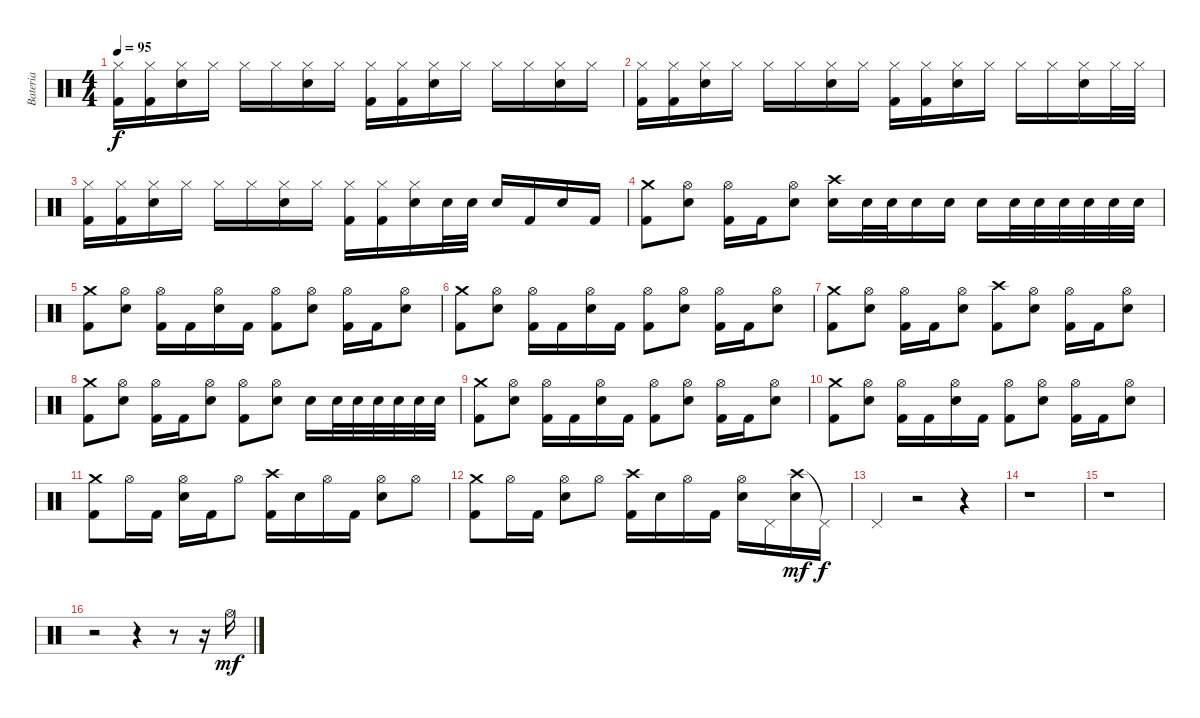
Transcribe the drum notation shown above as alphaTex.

\track ("Bateria" "Bateria") {instrument percussion}
\staff {score}
\articulation defaults
\ts (4 4)
\tempo 95
\clef neutral
\ks c
("Hi-Hat (closed)" "Kick (hit) 2").16{dy f} ("Hi-Hat (closed)" "Kick (hit) 2").16 ("Hi-Hat (closed)" "Electric Snare (hit)").16 "Hi-Hat (closed)".16 "Hi-Hat (closed)".16 "Hi-Hat (closed)".16 ("Hi-Hat (closed)" "Electric Snare (hit)").16 "Hi-Hat (closed)".16 ("Hi-Hat (closed)" "Kick (hit) 2").16 ("Hi-Hat (closed)" "Kick (hit) 2").16 ("Hi-Hat (closed)" "Electric Snare (hit)").16 "Hi-Hat (closed)".16 "Hi-Hat (closed)".16 "Hi-Hat (closed)".16 ("Hi-Hat (closed)" "Electric Snare (hit)").16 "Hi-Hat (closed)".16 |
("Hi-Hat (closed)" "Kick (hit) 2").16 ("Hi-Hat (closed)" "Kick (hit) 2").16 ("Hi-Hat (closed)" "Electric Snare (hit)").16 "Hi-Hat (closed)".16 "Hi-Hat (closed)".16 "Hi-Hat (closed)".16 ("Hi-Hat (closed)" "Electric Snare (hit)").16 "Hi-Hat (closed)".16 ("Hi-Hat (closed)" "Kick (hit) 2").16 ("Hi-Hat (closed)" "Kick (hit) 2").16 ("Hi-Hat (closed)" "Electric Snare (hit)").16 "Hi-Hat (closed)".16 "Hi-Hat (closed)".16 "Hi-Hat (closed)".16 ("Hi-Hat (closed)" "Electric Snare (hit)").16 "Hi-Hat (closed)".32 "Hi-Hat (closed)".32 |
("Hi-Hat (closed)" "Kick (hit) 2").16 ("Hi-Hat (closed)" "Kick (hit) 2").16 ("Hi-Hat (closed)" "Electric Snare (hit)").16 "Hi-Hat (closed)".16 "Hi-Hat (closed)".16 "Hi-Hat (closed)".16 ("Hi-Hat (closed)" "Electric Snare (hit)").16 "Hi-Hat (closed)".16 ("Hi-Hat (closed)" "Kick (hit) 2").16 ("Hi-Hat (closed)" "Kick (hit) 2").16 ("Hi-Hat (closed)" "Electric Snare (hit)").16 "Electric Snare (hit)".32 "Electric Snare (hit)".32 "Electric Snare (hit)".16 "Kick (hit) 2".16 "Electric Snare (hit)".16 "Kick (hit) 2".16 |
("Crash medium (hit)" "Kick (hit) 2").8 ("Hi-Hat (open)" "Electric Snare (hit)").8 ("Hi-Hat (open)" "Kick (hit) 2").16 "Kick (hit) 2".16 ("Hi-Hat (open)" "Electric Snare (hit)").8 ("Crash high (hit)" "Electric Snare (hit)").16 "Electric Snare (hit)".32 "Electric Snare (hit)".32 "Electric Snare (hit)".16 "Electric Snare (hit)".16 "Electric Snare (hit)".16 "Electric Snare (hit)".32 "Electric Snare (hit)".32 "Electric Snare (hit)".32 "Electric Snare (hit)".32 "Electric Snare (hit)".32 "Electric Snare (hit)".32 |
("Crash medium (hit)" "Kick (hit) 2").8 ("Hi-Hat (open)" "Electric Snare (hit)").8 ("Hi-Hat (open)" "Kick (hit) 2").16 "Kick (hit) 2".16 ("Hi-Hat (open)" "Electric Snare (hit)").16 "Kick (hit) 2".16 ("Hi-Hat (open)" "Kick (hit) 2").8 ("Hi-Hat (open)" "Electric Snare (hit)").8 ("Hi-Hat (open)" "Kick (hit) 2").16 "Kick (hit) 2".16 ("Hi-Hat (open)" "Electric Snare (hit)").8 |
("Crash medium (hit)" "Kick (hit) 2").8 ("Hi-Hat (open)" "Electric Snare (hit)").8 ("Hi-Hat (open)" "Kick (hit) 2").16 "Kick (hit) 2".16 ("Hi-Hat (open)" "Electric Snare (hit)").16 "Kick (hit) 2".16 ("Hi-Hat (open)" "Kick (hit) 2").8 ("Hi-Hat (open)" "Electric Snare (hit)").8 ("Hi-Hat (open)" "Kick (hit) 2").16 "Kick (hit) 2".16 ("Hi-Hat (open)" "Electric Snare (hit)").8 |
("Crash medium (hit)" "Kick (hit) 2").8 ("Hi-Hat (open)" "Electric Snare (hit)").8 ("Hi-Hat (open)" "Kick (hit) 2").16 "Kick (hit) 2".16 ("Hi-Hat (open)" "Electric Snare (hit)").8 ("Crash high (hit)" "Kick (hit) 2").8 ("Hi-Hat (open)" "Electric Snare (hit)").8 ("Hi-Hat (open)" "Kick (hit) 2").16 "Kick (hit) 2".16 ("Hi-Hat (open)" "Electric Snare (hit)").8 |
("Crash medium (hit)" "Kick (hit) 2").8 ("Hi-Hat (open)" "Electric Snare (hit)").8 ("Hi-Hat (open)" "Kick (hit) 2").16 "Kick (hit) 2".16 ("Hi-Hat (open)" "Electric Snare (hit)").8 ("Hi-Hat (open)" "Kick (hit) 2").8 ("Hi-Hat (open)" "Electric Snare (hit)").8 "Electric Snare (hit)".16 "Electric Snare (hit)".32 "Electric Snare (hit)".32 "Electric Snare (hit)".32 "Electric Snare (hit)".32 "Electric Snare (hit)".32 "Electric Snare (hit)".32 |
("Crash medium (hit)" "Kick (hit) 2").8 ("Hi-Hat (open)" "Electric Snare (hit)").8 ("Hi-Hat (open)" "Kick (hit) 2").16 "Kick (hit) 2".16 ("Hi-Hat (open)" "Electric Snare (hit)").16 "Kick (hit) 2".16 ("Hi-Hat (open)" "Kick (hit) 2").8 ("Hi-Hat (open)" "Electric Snare (hit)").8 ("Hi-Hat (open)" "Kick (hit) 2").16 "Kick (hit) 2".16 ("Hi-Hat (open)" "Electric Snare (hit)").8 |
("Crash medium (hit)" "Kick (hit) 2").8 ("Hi-Hat (open)" "Electric Snare (hit)").8 ("Hi-Hat (open)" "Kick (hit) 2").16 "Kick (hit) 2".16 ("Hi-Hat (open)" "Electric Snare (hit)").16 "Kick (hit) 2".16 ("Hi-Hat (open)" "Kick (hit) 2").8 ("Hi-Hat (open)" "Electric Snare (hit)").8 ("Hi-Hat (open)" "Kick (hit) 2").16 "Kick (hit) 2".16 ("Hi-Hat (open)" "Electric Snare (hit)").8 |
("Crash medium (hit)" "Kick (hit) 2").8 "Hi-Hat (open)".16 "Kick (hit) 2".16 ("Hi-Hat (open)" "Electric Snare (hit)").16 "Kick (hit) 2".16 "Hi-Hat (open)".8 ("Crash high (hit)" "Kick (hit) 2").16 "Electric Snare (hit)".16 "Hi-Hat (open)".16 "Kick (hit) 2".16 ("Hi-Hat (open)" "Electric Snare (hit)").8 "Hi-Hat (open)".8 |
("Crash medium (hit)" "Kick (hit) 2").8 "Hi-Hat (open)".16 "Kick (hit) 2".16 ("Hi-Hat (open)" "Electric Snare (hit)").8 "Hi-Hat (open)".8 ("Crash high (hit)" "Kick (hit) 2").16 "Electric Snare (hit)".16 "Hi-Hat (open)".16 "Kick (hit) 2".16 ("Hi-Hat (open)" "Electric Snare (hit)").16 "Pedal Hi-Hat (hit)".16 ("Crash high (hit)" "Electric Snare (hit)").16{dy mf} "Pedal Hi-Hat (hit)"{t}.16{dy f} |
"Pedal Hi-Hat (hit)".4 r.2 r.4 |
r.1 |
r.1 |
r.2 r.4 r.8 r.16 "Hi-Hat (open)".16{dy mf}
